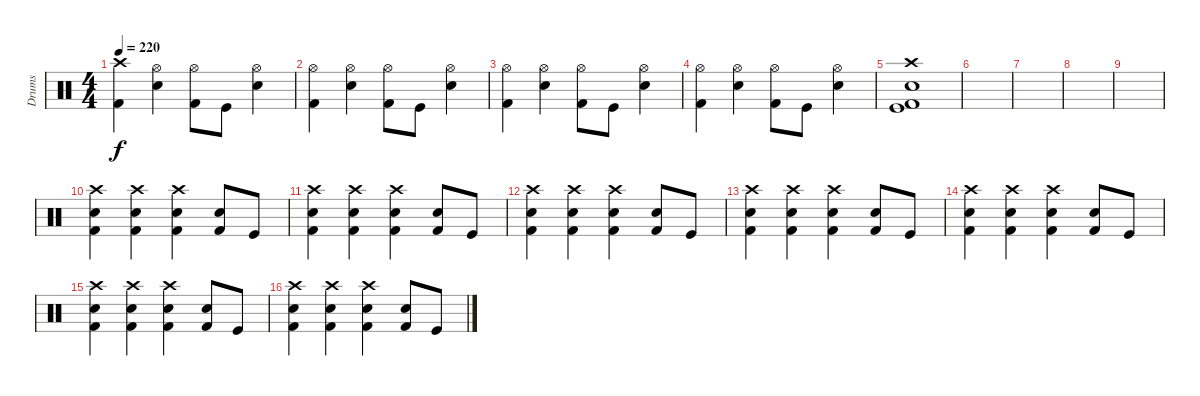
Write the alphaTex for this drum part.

\track ("Drums" "Drums") {instrument percussion}
\staff {score}
\articulation defaults
\ts (4 4)
\tempo 220
\clef neutral
\ks c
("Crash high (hit)" "Kick (hit) 2").4{dy f} ("Hi-Hat (open)" "Electric Snare (hit)").4 ("Hi-Hat (open)" "Kick (hit) 2").8 "Kick (hit)".8 ("Hi-Hat (open)" "Electric Snare (hit)").4 |
("Hi-Hat (open)" "Kick (hit) 2").4 ("Hi-Hat (open)" "Electric Snare (hit)").4 ("Hi-Hat (open)" "Kick (hit) 2").8 "Kick (hit)".8 ("Hi-Hat (open)" "Electric Snare (hit)").4 |
("Hi-Hat (open)" "Kick (hit) 2").4 ("Hi-Hat (open)" "Electric Snare (hit)").4 ("Hi-Hat (open)" "Kick (hit) 2").8 "Kick (hit)".8 ("Hi-Hat (open)" "Electric Snare (hit)").4 |
("Hi-Hat (open)" "Kick (hit) 2").4 ("Hi-Hat (open)" "Electric Snare (hit)").4 ("Hi-Hat (open)" "Kick (hit) 2").8 "Kick (hit)".8 ("Hi-Hat (open)" "Electric Snare (hit)").4 |
("Crash high (hit)" "Electric Snare (hit)" "Kick (hit)" "Kick (hit) 2").1 |
|
|
|
|
("Crash high (hit)" "Electric Snare (hit)" "Kick (hit) 2").4 ("Crash high (hit)" "Electric Snare (hit)" "Kick (hit) 2").4 ("Crash high (hit)" "Electric Snare (hit)" "Kick (hit) 2").4 ("Electric Snare (hit)" "Kick (hit) 2").8 "Kick (hit)".8 |
("Crash high (hit)" "Electric Snare (hit)" "Kick (hit) 2").4 ("Crash high (hit)" "Electric Snare (hit)" "Kick (hit) 2").4 ("Crash high (hit)" "Electric Snare (hit)" "Kick (hit) 2").4 ("Electric Snare (hit)" "Kick (hit) 2").8 "Kick (hit)".8 |
("Crash high (hit)" "Electric Snare (hit)" "Kick (hit) 2").4 ("Crash high (hit)" "Electric Snare (hit)" "Kick (hit) 2").4 ("Crash high (hit)" "Electric Snare (hit)" "Kick (hit) 2").4 ("Electric Snare (hit)" "Kick (hit) 2").8 "Kick (hit)".8 |
("Crash high (hit)" "Electric Snare (hit)" "Kick (hit) 2").4 ("Crash high (hit)" "Electric Snare (hit)" "Kick (hit) 2").4 ("Crash high (hit)" "Electric Snare (hit)" "Kick (hit) 2").4 ("Electric Snare (hit)" "Kick (hit) 2").8 "Kick (hit)".8 |
("Crash high (hit)" "Electric Snare (hit)" "Kick (hit) 2").4 ("Crash high (hit)" "Electric Snare (hit)" "Kick (hit) 2").4 ("Crash high (hit)" "Electric Snare (hit)" "Kick (hit) 2").4 ("Electric Snare (hit)" "Kick (hit) 2").8 "Kick (hit)".8 |
("Crash high (hit)" "Electric Snare (hit)" "Kick (hit) 2").4 ("Crash high (hit)" "Electric Snare (hit)" "Kick (hit) 2").4 ("Crash high (hit)" "Electric Snare (hit)" "Kick (hit) 2").4 ("Electric Snare (hit)" "Kick (hit) 2").8 "Kick (hit)".8 |
("Crash high (hit)" "Electric Snare (hit)" "Kick (hit) 2").4 ("Crash high (hit)" "Electric Snare (hit)" "Kick (hit) 2").4 ("Crash high (hit)" "Electric Snare (hit)" "Kick (hit) 2").4 ("Electric Snare (hit)" "Kick (hit) 2").8 "Kick (hit)".8
